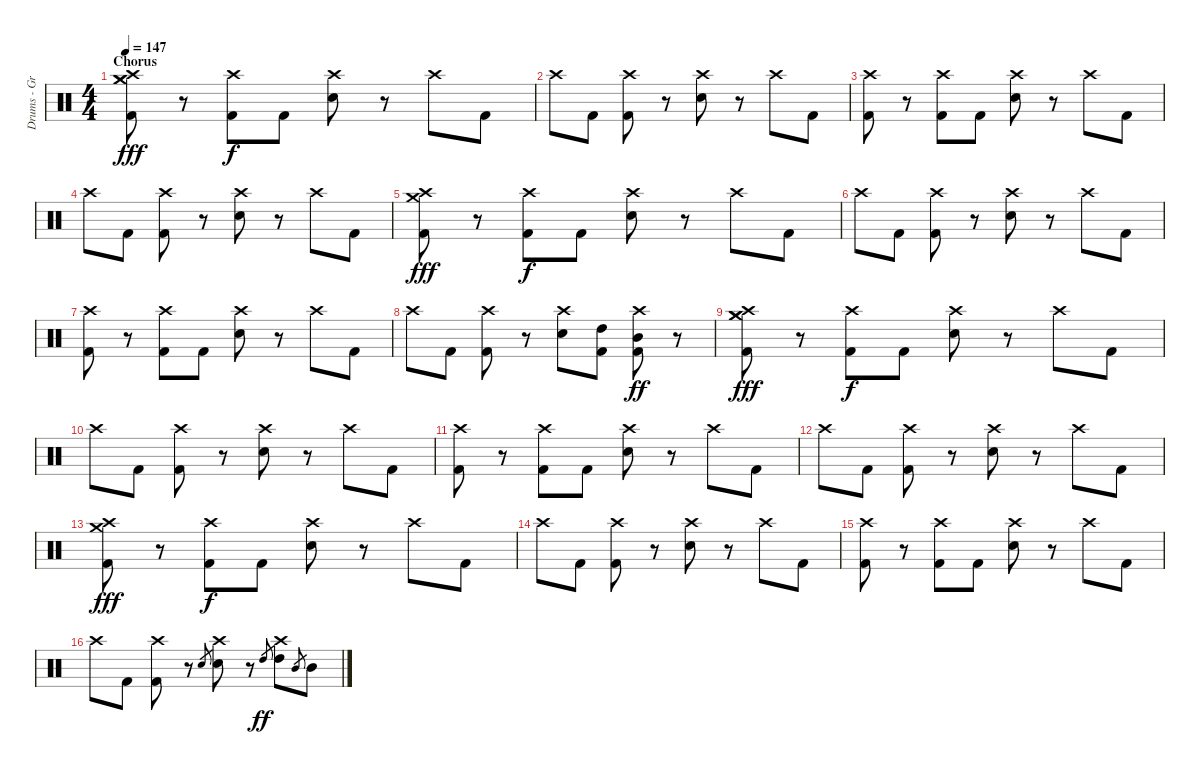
\track ("Drums - Greg Upchurch" "Drums - Gr") {instrument percussion}
\staff {score}
\articulation defaults
\ts (4 4)
\section ("" "Chorus")
\tempo 147
\clef neutral
\ks c
("Crash medium (hit)" "Crash medium (hit)" "Crash high (hit)" "Kick (hit) 2").8{dy fff} r.8 ("Crash high (hit)" "Kick (hit) 2").8{dy f} "Kick (hit) 2".8 ("Crash high (hit)" "Electric Snare (hit)").8 r.8 "Crash high (hit)".8 "Kick (hit) 2".8 |
"Crash high (hit)".8 "Kick (hit) 2".8 ("Crash high (hit)" "Kick (hit) 2").8 r.8 ("Crash high (hit)" "Electric Snare (hit)").8 r.8 "Crash high (hit)".8 "Kick (hit) 2".8 |
("Crash high (hit)" "Kick (hit) 2").8 r.8 ("Crash high (hit)" "Kick (hit) 2").8 "Kick (hit) 2".8 ("Crash high (hit)" "Electric Snare (hit)").8 r.8 "Crash high (hit)".8 "Kick (hit) 2".8 |
"Crash high (hit)".8 "Kick (hit) 2".8 ("Crash high (hit)" "Kick (hit) 2").8 r.8 ("Crash high (hit)" "Electric Snare (hit)").8 r.8 "Crash high (hit)".8 "Kick (hit) 2".8 |
("Crash medium (hit)" "Crash high (hit)" "Kick (hit) 2").8{dy fff} r.8 ("Crash high (hit)" "Kick (hit) 2").8{dy f} "Kick (hit) 2".8 ("Crash high (hit)" "Electric Snare (hit)").8 r.8 "Crash high (hit)".8 "Kick (hit) 2".8 |
"Crash high (hit)".8 "Kick (hit) 2".8 ("Crash high (hit)" "Kick (hit) 2").8 r.8 ("Crash high (hit)" "Electric Snare (hit)").8 r.8 "Crash high (hit)".8 "Kick (hit) 2".8 |
("Crash high (hit)" "Kick (hit) 2").8 r.8 ("Crash high (hit)" "Kick (hit) 2").8 "Kick (hit) 2".8 ("Crash high (hit)" "Electric Snare (hit)").8 r.8 "Crash high (hit)".8 "Kick (hit) 2".8 |
"Crash high (hit)".8 "Kick (hit) 2".8 ("Crash high (hit)" "Kick (hit) 2").8 r.8 ("Crash high (hit)" "Electric Snare (hit)").8 ("High Tom (hit)" "Kick (hit) 2").8 ("Crash high (hit)" "Mid Tom (hit)" "Kick (hit) 2").8{dy ff} r.8 |
("Crash medium (hit)" "Crash medium (hit)" "Crash high (hit)" "Kick (hit) 2").8{dy fff} r.8 ("Crash high (hit)" "Kick (hit) 2").8{dy f} "Kick (hit) 2".8 ("Crash high (hit)" "Electric Snare (hit)").8 r.8 "Crash high (hit)".8 "Kick (hit) 2".8 |
"Crash high (hit)".8 "Kick (hit) 2".8 ("Crash high (hit)" "Kick (hit) 2").8 r.8 ("Crash high (hit)" "Electric Snare (hit)").8 r.8 "Crash high (hit)".8 "Kick (hit) 2".8 |
("Crash high (hit)" "Kick (hit) 2").8 r.8 ("Crash high (hit)" "Kick (hit) 2").8 "Kick (hit) 2".8 ("Crash high (hit)" "Electric Snare (hit)").8 r.8 "Crash high (hit)".8 "Kick (hit) 2".8 |
"Crash high (hit)".8 "Kick (hit) 2".8 ("Crash high (hit)" "Kick (hit) 2").8 r.8 ("Crash high (hit)" "Electric Snare (hit)").8 r.8 "Crash high (hit)".8 "Kick (hit) 2".8 |
("Crash medium (hit)" "Crash high (hit)" "Kick (hit) 2").8{dy fff} r.8 ("Crash high (hit)" "Kick (hit) 2").8{dy f} "Kick (hit) 2".8 ("Crash high (hit)" "Electric Snare (hit)").8 r.8 "Crash high (hit)".8 "Kick (hit) 2".8 |
"Crash high (hit)".8 "Kick (hit) 2".8 ("Crash high (hit)" "Kick (hit) 2").8 r.8 ("Crash high (hit)" "Electric Snare (hit)").8 r.8 "Crash high (hit)".8 "Kick (hit) 2".8 |
("Crash high (hit)" "Kick (hit) 2").8 r.8 ("Crash high (hit)" "Kick (hit) 2").8 "Kick (hit) 2".8 ("Crash high (hit)" "Electric Snare (hit)").8 r.8 "Crash high (hit)".8 "Kick (hit) 2".8 |
"Crash high (hit)".8 "Kick (hit) 2".8 ("Crash high (hit)" "Kick (hit) 2").8 r.8 "Electric Snare (hit)".8{gr} ("Crash high (hit)" "Electric Snare (hit)").8 r.8 "High Tom (hit)".8{gr dy ff} ("Crash high (hit)" "High Tom (hit)").8 "Mid Tom (hit)".8{gr} "Mid Tom (hit)".8
